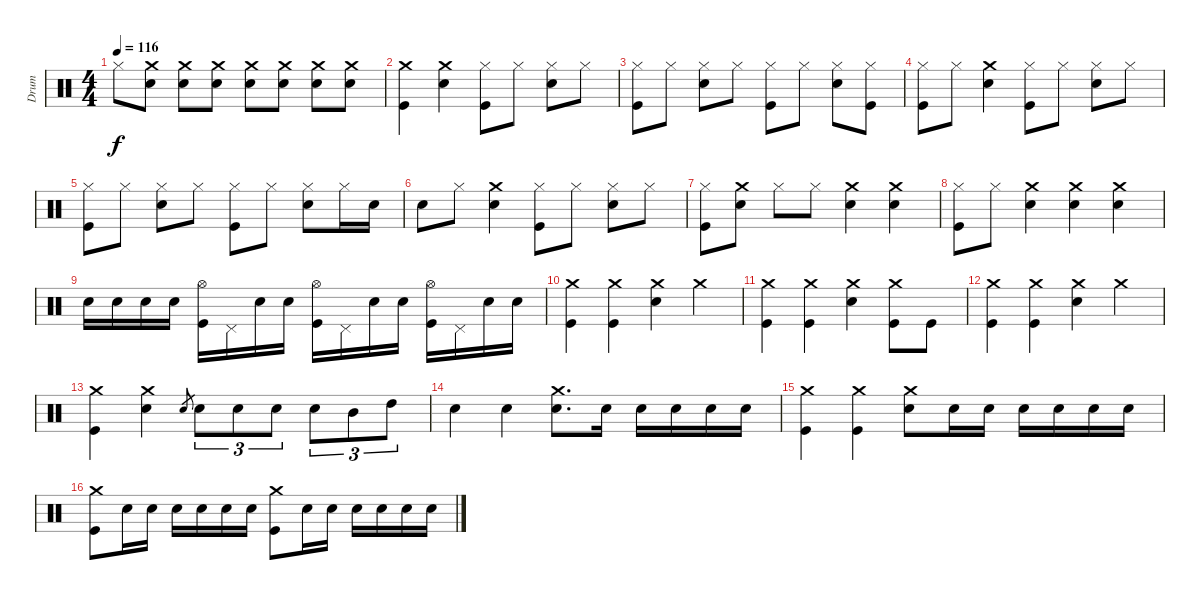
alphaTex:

\track ("Drum" "Drum") {instrument percussion}
\staff {score}
\articulation defaults
\ts (4 4)
\tempo 116
\clef neutral
\ks c "Hi-Hat (closed)".8{dy f}
("Electric Snare (hit)" "Crash medium (hit)").8 ("Electric Snare (hit)" "Crash medium (hit)").8 ("Electric Snare (hit)" "Crash medium (hit)").8 ("Electric Snare (hit)" "Crash medium (hit)").8 ("Electric Snare (hit)" "Crash medium (hit)").8 ("Electric Snare (hit)" "Crash medium (hit)").8 ("Electric Snare (hit)" "Crash medium (hit)").8 |
("Kick (hit)" "Crash medium (hit)").4 ("Electric Snare (hit)" "Crash medium (hit)").4 ("Kick (hit)" "Hi-Hat (closed)").8 "Hi-Hat (closed)".8 ("Electric Snare (hit)" "Hi-Hat (closed)").8 "Hi-Hat (closed)".8 |
("Kick (hit)" "Hi-Hat (closed)").8 "Hi-Hat (closed)".8 ("Electric Snare (hit)" "Hi-Hat (closed)").8 "Hi-Hat (closed)".8 ("Kick (hit)" "Hi-Hat (closed)").8 "Hi-Hat (closed)".8 ("Electric Snare (hit)" "Hi-Hat (closed)").8 ("Kick (hit)" "Hi-Hat (closed)").8 |
("Kick (hit)" "Hi-Hat (closed)").8 "Hi-Hat (closed)".8 ("Electric Snare (hit)" "Crash medium (hit)").4 ("Kick (hit)" "Hi-Hat (closed)").8 "Hi-Hat (closed)".8 ("Electric Snare (hit)" "Hi-Hat (closed)").8 "Hi-Hat (closed)".8 |
("Kick (hit)" "Hi-Hat (closed)").8 "Hi-Hat (closed)".8 ("Electric Snare (hit)" "Hi-Hat (closed)").8 "Hi-Hat (closed)".8 ("Kick (hit)" "Hi-Hat (closed)").8 "Hi-Hat (closed)".8 ("Electric Snare (hit)" "Hi-Hat (closed)").8 "Hi-Hat (closed)".16 "Electric Snare (hit)".16 |
"Electric Snare (hit)".8 "Hi-Hat (closed)".8 ("Electric Snare (hit)" "Crash medium (hit)").4 ("Kick (hit)" "Hi-Hat (closed)").8 "Hi-Hat (closed)".8 ("Electric Snare (hit)" "Hi-Hat (closed)").8 "Hi-Hat (closed)".8 |
("Kick (hit)" "Hi-Hat (closed)").8 ("Electric Snare (hit)" "Crash medium (hit)").8 "Hi-Hat (closed)".8 "Hi-Hat (closed)".8 ("Electric Snare (hit)" "Crash medium (hit)").4 ("Electric Snare (hit)" "Crash medium (hit)").4 |
("Kick (hit)" "Hi-Hat (closed)").8 "Hi-Hat (closed)".8 ("Electric Snare (hit)" "Crash medium (hit)").4 ("Electric Snare (hit)" "Crash medium (hit)").4 ("Electric Snare (hit)" "Crash medium (hit)").4 |
"Electric Snare (hit)".16 "Electric Snare (hit)".16 "Electric Snare (hit)".16 "Electric Snare (hit)".16 ("Kick (hit)" "Hi-Hat (open)").16 "Pedal Hi-Hat (hit)".16 "Electric Snare (hit)".16 "Electric Snare (hit)".16 ("Kick (hit)" "Hi-Hat (open)").16 "Pedal Hi-Hat (hit)".16 "Electric Snare (hit)".16 "Electric Snare (hit)".16 ("Kick (hit)" "Hi-Hat (open)").16 "Pedal Hi-Hat (hit)".16 "Electric Snare (hit)".16 "Electric Snare (hit)".16 |
("Kick (hit)" "Crash medium (hit)").4 ("Kick (hit)" "Crash medium (hit)").4 ("Electric Snare (hit)" "Crash medium (hit)").4 "Crash medium (hit)".4 |
("Kick (hit)" "Crash medium (hit)").4 ("Kick (hit)" "Crash medium (hit)").4 ("Electric Snare (hit)" "Crash medium (hit)").4 ("Kick (hit)" "Crash medium (hit)").8 "Kick (hit)".8 |
("Kick (hit)" "Crash medium (hit)").4 ("Kick (hit)" "Crash medium (hit)").4 ("Electric Snare (hit)" "Crash medium (hit)").4 "Crash medium (hit)".4 |
("Kick (hit)" "Crash medium (hit)").4 ("Electric Snare (hit)" "Crash medium (hit)").4 "Electric Snare (hit)".8{gr} "Electric Snare (hit)".8{tu (3 2)} "Electric Snare (hit)".8{tu (3 2)} "Electric Snare (hit)".8{tu (3 2)} "Electric Snare (hit)".8{tu (3 2)} "Mid Tom (hit)".8{tu (3 2)} "High Tom (hit)".8{tu (3 2)} |
"Electric Snare (hit)".4 "Electric Snare (hit)".4 ("Electric Snare (hit)" "Crash medium (hit)").8{d} "Electric Snare (hit)".16 "Electric Snare (hit)".16 "Electric Snare (hit)".16 "Electric Snare (hit)".16 "Electric Snare (hit)".16 |
("Kick (hit)" "Crash medium (hit)").4 ("Kick (hit)" "Crash medium (hit)").4 ("Electric Snare (hit)" "Crash medium (hit)").8 "Electric Snare (hit)".16 "Electric Snare (hit)".16 "Electric Snare (hit)".16 "Electric Snare (hit)".16 "Electric Snare (hit)".16 "Electric Snare (hit)".16 |
("Kick (hit)" "Crash medium (hit)").8 "Electric Snare (hit)".16 "Electric Snare (hit)".16 "Electric Snare (hit)".16 "Electric Snare (hit)".16 "Electric Snare (hit)".16 "Electric Snare (hit)".16 ("Kick (hit)" "Crash medium (hit)").8 "Electric Snare (hit)".16 "Electric Snare (hit)".16 "Electric Snare (hit)".16 "Electric Snare (hit)".16 "Electric Snare (hit)".16 "Electric Snare (hit)".16
